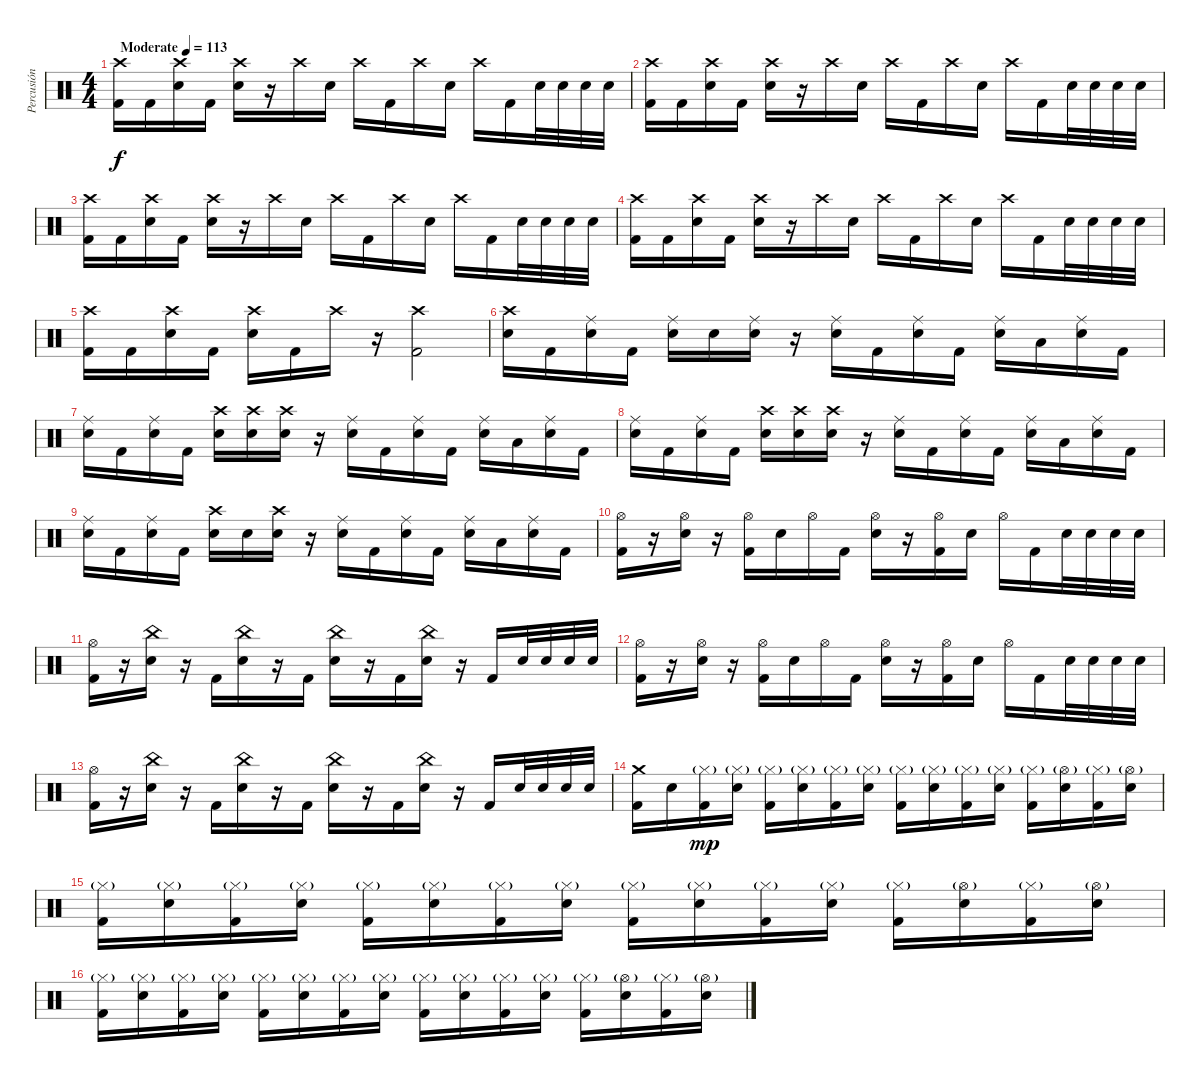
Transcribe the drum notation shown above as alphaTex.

\track ("Percusión" "Percusión") {instrument percussion}
\staff {score}
\articulation defaults
\ts (4 4)
\tempo (113 "Moderate")
\clef neutral
\ks c
("Crash high (hit)" "Kick (hit) 2").16{dy f} "Kick (hit) 2".16 ("Crash high (hit)" "Electric Snare (hit)").16 "Kick (hit) 2".16 ("Crash high (hit)" "Electric Snare (hit)").16 r.16 "Crash high (hit)".16 "Electric Snare (hit)".16 "Crash high (hit)".16 "Kick (hit) 2".16 "Crash high (hit)".16 "Electric Snare (hit)".16 "Crash high (hit)".16 "Kick (hit) 2".16 "Electric Snare (hit)".32 "Electric Snare (hit)".32 "Electric Snare (hit)".32 "Electric Snare (hit)".32 |
("Crash high (hit)" "Kick (hit) 2").16 "Kick (hit) 2".16 ("Crash high (hit)" "Electric Snare (hit)").16 "Kick (hit) 2".16 ("Crash high (hit)" "Electric Snare (hit)").16 r.16 "Crash high (hit)".16 "Electric Snare (hit)".16 "Crash high (hit)".16 "Kick (hit) 2".16 "Crash high (hit)".16 "Electric Snare (hit)".16 "Crash high (hit)".16 "Kick (hit) 2".16 "Electric Snare (hit)".32 "Electric Snare (hit)".32 "Electric Snare (hit)".32 "Electric Snare (hit)".32 |
("Crash high (hit)" "Kick (hit) 2").16 "Kick (hit) 2".16 ("Crash high (hit)" "Electric Snare (hit)").16 "Kick (hit) 2".16 ("Crash high (hit)" "Electric Snare (hit)").16 r.16 "Crash high (hit)".16 "Electric Snare (hit)".16 "Crash high (hit)".16 "Kick (hit) 2".16 "Crash high (hit)".16 "Electric Snare (hit)".16 "Crash high (hit)".16 "Kick (hit) 2".16 "Electric Snare (hit)".32 "Electric Snare (hit)".32 "Electric Snare (hit)".32 "Electric Snare (hit)".32 |
("Crash high (hit)" "Kick (hit) 2").16 "Kick (hit) 2".16 ("Crash high (hit)" "Electric Snare (hit)").16 "Kick (hit) 2".16 ("Crash high (hit)" "Electric Snare (hit)").16 r.16 "Crash high (hit)".16 "Electric Snare (hit)".16 "Crash high (hit)".16 "Kick (hit) 2".16 "Crash high (hit)".16 "Electric Snare (hit)".16 "Crash high (hit)".16 "Kick (hit) 2".16 "Electric Snare (hit)".32 "Electric Snare (hit)".32 "Electric Snare (hit)".32 "Electric Snare (hit)".32 |
("Crash high (hit)" "Kick (hit) 2").16 "Kick (hit) 2".16 ("Crash high (hit)" "Electric Snare (hit)").16 "Kick (hit) 2".16 ("Crash high (hit)" "Electric Snare (hit)").16 "Kick (hit) 2".16 "Crash high (hit)".16 r.16 ("Crash high (hit)" "Kick (hit) 2").2 |
("Crash high (hit)" "Electric Snare (hit)").16 "Kick (hit) 2".16 ("Ride (middle)" "Electric Snare (hit)").16 "Kick (hit) 2".16 ("Ride (middle)" "Electric Snare (hit)").16 "Electric Snare (hit)".16 ("Ride (middle)" "Electric Snare (hit)").16 r.16 ("Ride (middle)" "Electric Snare (hit)").16 "Kick (hit) 2".16 ("Ride (middle)" "Electric Snare (hit)").16 "Kick (hit) 2".16 ("Ride (middle)" "Electric Snare (hit)").16 "Low Tom (hit)".16 ("Ride (middle)" "Electric Snare (hit)").16 "Kick (hit) 2".16 |
("Ride (middle)" "Electric Snare (hit)").16 "Kick (hit) 2".16 ("Ride (middle)" "Electric Snare (hit)").16 "Kick (hit) 2".16 ("Crash high (hit)" "Electric Snare (hit)").16 ("Crash high (hit)" "Electric Snare (hit)").16 ("Crash high (hit)" "Electric Snare (hit)").16 r.16 ("Ride (middle)" "Electric Snare (hit)").16 "Kick (hit) 2".16 ("Ride (middle)" "Electric Snare (hit)").16 "Kick (hit) 2".16 ("Ride (middle)" "Electric Snare (hit)").16 "Low Tom (hit)".16 ("Ride (middle)" "Electric Snare (hit)").16 "Kick (hit) 2".16 |
("Ride (middle)" "Electric Snare (hit)").16 "Kick (hit) 2".16 ("Ride (middle)" "Electric Snare (hit)").16 "Kick (hit) 2".16 ("Crash high (hit)" "Electric Snare (hit)").16 ("Crash high (hit)" "Electric Snare (hit)").16 ("Crash high (hit)" "Electric Snare (hit)").16 r.16 ("Ride (middle)" "Electric Snare (hit)").16 "Kick (hit) 2".16 ("Ride (middle)" "Electric Snare (hit)").16 "Kick (hit) 2".16 ("Ride (middle)" "Electric Snare (hit)").16 "Low Tom (hit)".16 ("Ride (middle)" "Electric Snare (hit)").16 "Kick (hit) 2".16 |
("Ride (middle)" "Electric Snare (hit)").16 "Kick (hit) 2".16 ("Ride (middle)" "Electric Snare (hit)").16 "Kick (hit) 2".16 ("Crash high (hit)" "Electric Snare (hit)").16 "Electric Snare (hit)".16 ("Crash high (hit)" "Electric Snare (hit)").16 r.16 ("Ride (middle)" "Electric Snare (hit)").16 "Kick (hit) 2".16 ("Ride (middle)" "Electric Snare (hit)").16 "Kick (hit) 2".16 ("Ride (middle)" "Electric Snare (hit)").16 "Low Tom (hit)".16 ("Ride (middle)" "Electric Snare (hit)").16 "Kick (hit) 2".16 |
("Hi-Hat (open)" "Kick (hit) 2").16 r.16 ("Hi-Hat (open)" "Electric Snare (hit)").16 r.16 ("Hi-Hat (open)" "Kick (hit) 2").16 "Electric Snare (hit)".16 "Hi-Hat (open)".16 "Kick (hit) 2".16 ("Hi-Hat (open)" "Electric Snare (hit)").16 r.16 ("Hi-Hat (open)" "Kick (hit) 2").16 "Electric Snare (hit)".16 "Hi-Hat (open)".16 "Kick (hit) 2".16 "Electric Snare (hit)".32 "Electric Snare (hit)".32 "Electric Snare (hit)".32 "Electric Snare (hit)".32 |
("Hi-Hat (open)" "Kick (hit) 2").16 r.16 ("China (hit)" "Electric Snare (hit)").16 r.16 "Kick (hit) 2".16 ("China (hit)" "Electric Snare (hit)").16 r.16 "Kick (hit) 2".16 ("China (hit)" "Electric Snare (hit)").16 r.16 "Kick (hit) 2".16 ("China (hit)" "Electric Snare (hit)").16 r.16 "Kick (hit) 2".16 "Electric Snare (hit)".32 "Electric Snare (hit)".32 "Electric Snare (hit)".32 "Electric Snare (hit)".32 |
("Hi-Hat (open)" "Kick (hit) 2").16 r.16 ("Hi-Hat (open)" "Electric Snare (hit)").16 r.16 ("Hi-Hat (open)" "Kick (hit) 2").16 "Electric Snare (hit)".16 "Hi-Hat (open)".16 "Kick (hit) 2".16 ("Hi-Hat (open)" "Electric Snare (hit)").16 r.16 ("Hi-Hat (open)" "Kick (hit) 2").16 "Electric Snare (hit)".16 "Hi-Hat (open)".16 "Kick (hit) 2".16 "Electric Snare (hit)".32 "Electric Snare (hit)".32 "Electric Snare (hit)".32 "Electric Snare (hit)".32 |
("Hi-Hat (open)" "Kick (hit) 2").16 r.16 ("China (hit)" "Electric Snare (hit)").16 r.16 "Kick (hit) 2".16 ("China (hit)" "Electric Snare (hit)").16 r.16 "Kick (hit) 2".16 ("China (hit)" "Electric Snare (hit)").16 r.16 "Kick (hit) 2".16 ("China (hit)" "Electric Snare (hit)").16 r.16 "Kick (hit) 2".16 "Electric Snare (hit)".32 "Electric Snare (hit)".32 "Electric Snare (hit)".32 "Electric Snare (hit)".32 |
("Crash medium (hit)" "Kick (hit) 2").16 "Electric Snare (hit)".16 ("Hi-Hat (closed)"{g} "Kick (hit) 2").16{dy mp} ("Hi-Hat (closed)"{g} "Electric Snare (hit)").16 ("Hi-Hat (closed)"{g} "Kick (hit) 2").16 ("Hi-Hat (closed)"{g} "Electric Snare (hit)").16 ("Hi-Hat (closed)"{g} "Kick (hit) 2").16 ("Hi-Hat (closed)"{g} "Electric Snare (hit)").16 ("Hi-Hat (closed)"{g} "Kick (hit) 2").16 ("Hi-Hat (closed)"{g} "Electric Snare (hit)").16 ("Hi-Hat (closed)"{g} "Kick (hit) 2").16 ("Hi-Hat (closed)"{g} "Electric Snare (hit)").16 ("Hi-Hat (closed)"{g} "Kick (hit) 2").16 ("Hi-Hat (open)"{g} "Electric Snare (hit)").16 ("Hi-Hat (closed)"{g} "Kick (hit) 2").16 ("Hi-Hat (open)"{g} "Electric Snare (hit)").16 |
("Hi-Hat (closed)"{g} "Kick (hit) 2").16 ("Hi-Hat (closed)"{g} "Electric Snare (hit)").16 ("Hi-Hat (closed)"{g} "Kick (hit) 2").16 ("Hi-Hat (closed)"{g} "Electric Snare (hit)").16 ("Hi-Hat (closed)"{g} "Kick (hit) 2").16 ("Hi-Hat (closed)"{g} "Electric Snare (hit)").16 ("Hi-Hat (closed)"{g} "Kick (hit) 2").16 ("Hi-Hat (closed)"{g} "Electric Snare (hit)").16 ("Hi-Hat (closed)"{g} "Kick (hit) 2").16 ("Hi-Hat (closed)"{g} "Electric Snare (hit)").16 ("Hi-Hat (closed)"{g} "Kick (hit) 2").16 ("Hi-Hat (closed)"{g} "Electric Snare (hit)").16 ("Hi-Hat (closed)"{g} "Kick (hit) 2").16 ("Hi-Hat (open)"{g} "Electric Snare (hit)").16 ("Hi-Hat (closed)"{g} "Kick (hit) 2").16 ("Hi-Hat (open)"{g} "Electric Snare (hit)").16 |
("Hi-Hat (closed)"{g} "Kick (hit) 2").16 ("Hi-Hat (closed)"{g} "Electric Snare (hit)").16 ("Hi-Hat (closed)"{g} "Kick (hit) 2").16 ("Hi-Hat (closed)"{g} "Electric Snare (hit)").16 ("Hi-Hat (closed)"{g} "Kick (hit) 2").16 ("Hi-Hat (closed)"{g} "Electric Snare (hit)").16 ("Hi-Hat (closed)"{g} "Kick (hit) 2").16 ("Hi-Hat (closed)"{g} "Electric Snare (hit)").16 ("Hi-Hat (closed)"{g} "Kick (hit) 2").16 ("Hi-Hat (closed)"{g} "Electric Snare (hit)").16 ("Hi-Hat (closed)"{g} "Kick (hit) 2").16 ("Hi-Hat (closed)"{g} "Electric Snare (hit)").16 ("Hi-Hat (closed)"{g} "Kick (hit) 2").16 ("Hi-Hat (open)"{g} "Electric Snare (hit)").16 ("Hi-Hat (closed)"{g} "Kick (hit) 2").16 ("Hi-Hat (open)"{g} "Electric Snare (hit)").16
